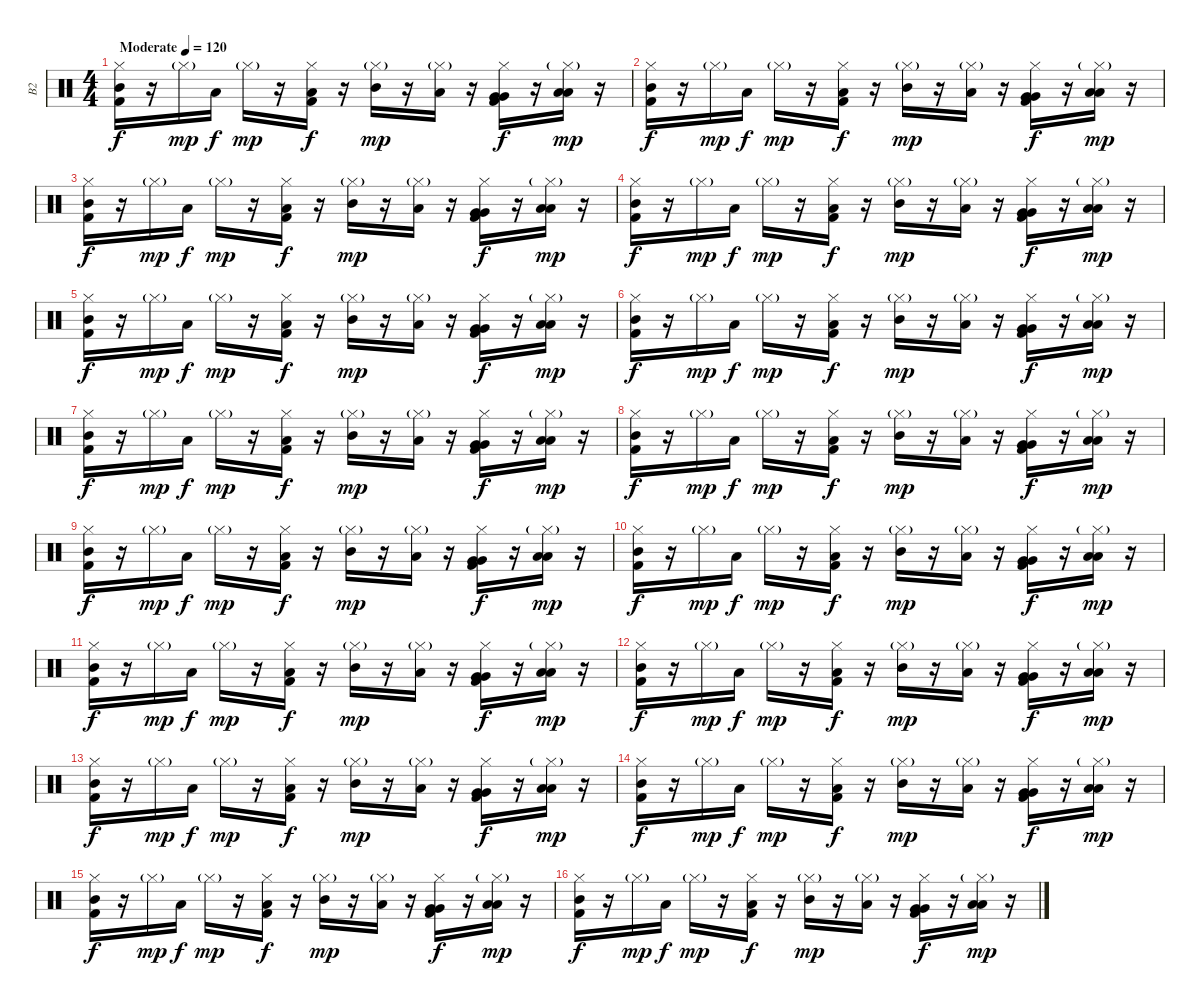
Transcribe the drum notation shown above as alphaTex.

\track ("В2" "В2") {instrument percussion}
\staff {score}
\articulation defaults
\ts (4 4)
\tempo (120 "Moderate")
\clef neutral
\ks c
("Hi-Hat (closed)" "Mid Tom (hit)" "Kick (hit) 2").16{dy f volume 1} r.16{volume 8} "Hi-Hat (closed)"{g}.16{dy mp} "Low Tom (hit)".16{dy f} "Hi-Hat (closed)"{g}.16{dy mp} r.16 ("Hi-Hat (closed)" "Low Floor Tom (hit)" "Kick (hit) 2").16{dy f} r.16 ("Hi-Hat (closed)"{g} "Mid Tom (hit)").16{dy mp} r.16 ("Hi-Hat (closed)"{g} "Low Tom (hit)").16 r.16 ("Hi-Hat (closed)" "Very Low Tom (hit)" "Very Low Tom (hit)" "Kick (hit) 2").16{dy f} r.16 ("Hi-Hat (closed)"{g} "Low Floor Tom (hit)" "Low Floor Tom (hit)").16{dy mp} r.16 |
("Hi-Hat (closed)" "Mid Tom (hit)" "Kick (hit) 2").16{dy f} r.16 "Hi-Hat (closed)"{g}.16{dy mp} "Low Tom (hit)".16{dy f} "Hi-Hat (closed)"{g}.16{dy mp} r.16 ("Hi-Hat (closed)" "Low Floor Tom (hit)" "Kick (hit) 2").16{dy f} r.16 ("Hi-Hat (closed)"{g} "Mid Tom (hit)").16{dy mp} r.16 ("Hi-Hat (closed)"{g} "Low Tom (hit)").16 r.16 ("Hi-Hat (closed)" "Very Low Tom (hit)" "Very Low Tom (hit)" "Kick (hit) 2").16{dy f} r.16 ("Hi-Hat (closed)"{g} "Low Floor Tom (hit)" "Low Floor Tom (hit)").16{dy mp} r.16 |
("Hi-Hat (closed)" "Mid Tom (hit)" "Kick (hit) 2").16{dy f} r.16 "Hi-Hat (closed)"{g}.16{dy mp} "Low Tom (hit)".16{dy f} "Hi-Hat (closed)"{g}.16{dy mp} r.16 ("Hi-Hat (closed)" "Low Floor Tom (hit)" "Kick (hit) 2").16{dy f} r.16 ("Hi-Hat (closed)"{g} "Mid Tom (hit)").16{dy mp} r.16 ("Hi-Hat (closed)"{g} "Low Tom (hit)").16 r.16 ("Hi-Hat (closed)" "Very Low Tom (hit)" "Very Low Tom (hit)" "Kick (hit) 2").16{dy f} r.16 ("Hi-Hat (closed)"{g} "Low Floor Tom (hit)" "Low Floor Tom (hit)").16{dy mp} r.16 |
("Hi-Hat (closed)" "Mid Tom (hit)" "Kick (hit) 2").16{dy f volume 11} r.16 "Hi-Hat (closed)"{g}.16{dy mp} "Low Tom (hit)".16{dy f} "Hi-Hat (closed)"{g}.16{dy mp} r.16 ("Hi-Hat (closed)" "Low Floor Tom (hit)" "Kick (hit) 2").16{dy f} r.16 ("Hi-Hat (closed)"{g} "Mid Tom (hit)").16{dy mp} r.16 ("Hi-Hat (closed)"{g} "Low Tom (hit)").16 r.16 ("Hi-Hat (closed)" "Very Low Tom (hit)" "Very Low Tom (hit)" "Kick (hit) 2").16{dy f} r.16 ("Hi-Hat (closed)"{g} "Low Floor Tom (hit)" "Low Floor Tom (hit)").16{dy mp} r.16 |
("Hi-Hat (closed)" "Mid Tom (hit)" "Kick (hit) 2").16{dy f} r.16 "Hi-Hat (closed)"{g}.16{dy mp} "Low Tom (hit)".16{dy f} "Hi-Hat (closed)"{g}.16{dy mp} r.16 ("Hi-Hat (closed)" "Low Floor Tom (hit)" "Kick (hit) 2").16{dy f} r.16 ("Hi-Hat (closed)"{g} "Mid Tom (hit)").16{dy mp} r.16 ("Hi-Hat (closed)"{g} "Low Tom (hit)").16 r.16 ("Hi-Hat (closed)" "Very Low Tom (hit)" "Very Low Tom (hit)" "Kick (hit) 2").16{dy f} r.16 ("Hi-Hat (closed)"{g} "Low Floor Tom (hit)" "Low Floor Tom (hit)").16{dy mp} r.16 |
("Hi-Hat (closed)" "Mid Tom (hit)" "Kick (hit) 2").16{dy f} r.16 "Hi-Hat (closed)"{g}.16{dy mp} "Low Tom (hit)".16{dy f} "Hi-Hat (closed)"{g}.16{dy mp} r.16 ("Hi-Hat (closed)" "Low Floor Tom (hit)" "Kick (hit) 2").16{dy f} r.16 ("Hi-Hat (closed)"{g} "Mid Tom (hit)").16{dy mp} r.16 ("Hi-Hat (closed)"{g} "Low Tom (hit)").16 r.16 ("Hi-Hat (closed)" "Very Low Tom (hit)" "Very Low Tom (hit)" "Kick (hit) 2").16{dy f} r.16 ("Hi-Hat (closed)"{g} "Low Floor Tom (hit)" "Low Floor Tom (hit)").16{dy mp} r.16 |
("Hi-Hat (closed)" "Mid Tom (hit)" "Kick (hit) 2").16{dy f} r.16 "Hi-Hat (closed)"{g}.16{dy mp} "Low Tom (hit)".16{dy f} "Hi-Hat (closed)"{g}.16{dy mp} r.16 ("Hi-Hat (closed)" "Low Floor Tom (hit)" "Kick (hit) 2").16{dy f} r.16 ("Hi-Hat (closed)"{g} "Mid Tom (hit)").16{dy mp} r.16 ("Hi-Hat (closed)"{g} "Low Tom (hit)").16 r.16 ("Hi-Hat (closed)" "Very Low Tom (hit)" "Very Low Tom (hit)" "Kick (hit) 2").16{dy f} r.16 ("Hi-Hat (closed)"{g} "Low Floor Tom (hit)" "Low Floor Tom (hit)").16{dy mp} r.16 |
("Hi-Hat (closed)" "Mid Tom (hit)" "Kick (hit) 2").16{dy f} r.16 "Hi-Hat (closed)"{g}.16{dy mp} "Low Tom (hit)".16{dy f} "Hi-Hat (closed)"{g}.16{dy mp} r.16 ("Hi-Hat (closed)" "Low Floor Tom (hit)" "Kick (hit) 2").16{dy f} r.16 ("Hi-Hat (closed)"{g} "Mid Tom (hit)").16{dy mp} r.16 ("Hi-Hat (closed)"{g} "Low Tom (hit)").16 r.16 ("Hi-Hat (closed)" "Very Low Tom (hit)" "Very Low Tom (hit)" "Kick (hit) 2").16{dy f} r.16 ("Hi-Hat (closed)"{g} "Low Floor Tom (hit)" "Low Floor Tom (hit)").16{dy mp} r.16 |
("Hi-Hat (closed)" "Mid Tom (hit)" "Kick (hit) 2").16{dy f} r.16 "Hi-Hat (closed)"{g}.16{dy mp} "Low Tom (hit)".16{dy f} "Hi-Hat (closed)"{g}.16{dy mp} r.16 ("Hi-Hat (closed)" "Low Floor Tom (hit)" "Kick (hit) 2").16{dy f} r.16 ("Hi-Hat (closed)"{g} "Mid Tom (hit)").16{dy mp} r.16 ("Hi-Hat (closed)"{g} "Low Tom (hit)").16 r.16 ("Hi-Hat (closed)" "Very Low Tom (hit)" "Very Low Tom (hit)" "Kick (hit) 2").16{dy f} r.16 ("Hi-Hat (closed)"{g} "Low Floor Tom (hit)" "Low Floor Tom (hit)").16{dy mp} r.16 |
("Hi-Hat (closed)" "Mid Tom (hit)" "Kick (hit) 2").16{dy f} r.16 "Hi-Hat (closed)"{g}.16{dy mp} "Low Tom (hit)".16{dy f} "Hi-Hat (closed)"{g}.16{dy mp} r.16 ("Hi-Hat (closed)" "Low Floor Tom (hit)" "Kick (hit) 2").16{dy f} r.16 ("Hi-Hat (closed)"{g} "Mid Tom (hit)").16{dy mp} r.16 ("Hi-Hat (closed)"{g} "Low Tom (hit)").16 r.16 ("Hi-Hat (closed)" "Very Low Tom (hit)" "Very Low Tom (hit)" "Kick (hit) 2").16{dy f} r.16 ("Hi-Hat (closed)"{g} "Low Floor Tom (hit)" "Low Floor Tom (hit)").16{dy mp} r.16 |
("Hi-Hat (closed)" "Mid Tom (hit)" "Kick (hit) 2").16{dy f} r.16 "Hi-Hat (closed)"{g}.16{dy mp} "Low Tom (hit)".16{dy f} "Hi-Hat (closed)"{g}.16{dy mp} r.16 ("Hi-Hat (closed)" "Low Floor Tom (hit)" "Kick (hit) 2").16{dy f} r.16 ("Hi-Hat (closed)"{g} "Mid Tom (hit)").16{dy mp} r.16 ("Hi-Hat (closed)"{g} "Low Tom (hit)").16 r.16 ("Hi-Hat (closed)" "Very Low Tom (hit)" "Very Low Tom (hit)" "Kick (hit) 2").16{dy f} r.16 ("Hi-Hat (closed)"{g} "Low Floor Tom (hit)" "Low Floor Tom (hit)").16{dy mp} r.16 |
("Hi-Hat (closed)" "Mid Tom (hit)" "Kick (hit) 2").16{dy f} r.16 "Hi-Hat (closed)"{g}.16{dy mp} "Low Tom (hit)".16{dy f} "Hi-Hat (closed)"{g}.16{dy mp} r.16 ("Hi-Hat (closed)" "Low Floor Tom (hit)" "Kick (hit) 2").16{dy f} r.16 ("Hi-Hat (closed)"{g} "Mid Tom (hit)").16{dy mp} r.16 ("Hi-Hat (closed)"{g} "Low Tom (hit)").16 r.16 ("Hi-Hat (closed)" "Very Low Tom (hit)" "Very Low Tom (hit)" "Kick (hit) 2").16{dy f} r.16 ("Hi-Hat (closed)"{g} "Low Floor Tom (hit)" "Low Floor Tom (hit)").16{dy mp} r.16 |
("Hi-Hat (closed)" "Mid Tom (hit)" "Kick (hit) 2").16{dy f} r.16 "Hi-Hat (closed)"{g}.16{dy mp} "Low Tom (hit)".16{dy f} "Hi-Hat (closed)"{g}.16{dy mp} r.16 ("Hi-Hat (closed)" "Low Floor Tom (hit)" "Kick (hit) 2").16{dy f} r.16 ("Hi-Hat (closed)"{g} "Mid Tom (hit)").16{dy mp} r.16 ("Hi-Hat (closed)"{g} "Low Tom (hit)").16 r.16 ("Hi-Hat (closed)" "Very Low Tom (hit)" "Very Low Tom (hit)" "Kick (hit) 2").16{dy f} r.16 ("Hi-Hat (closed)"{g} "Low Floor Tom (hit)" "Low Floor Tom (hit)").16{dy mp} r.16 |
("Hi-Hat (closed)" "Mid Tom (hit)" "Kick (hit) 2").16{dy f} r.16 "Hi-Hat (closed)"{g}.16{dy mp} "Low Tom (hit)".16{dy f} "Hi-Hat (closed)"{g}.16{dy mp} r.16 ("Hi-Hat (closed)" "Low Floor Tom (hit)" "Kick (hit) 2").16{dy f} r.16 ("Hi-Hat (closed)"{g} "Mid Tom (hit)").16{dy mp} r.16 ("Hi-Hat (closed)"{g} "Low Tom (hit)").16 r.16 ("Hi-Hat (closed)" "Very Low Tom (hit)" "Very Low Tom (hit)" "Kick (hit) 2").16{dy f} r.16 ("Hi-Hat (closed)"{g} "Low Floor Tom (hit)" "Low Floor Tom (hit)").16{dy mp} r.16 |
("Hi-Hat (closed)" "Mid Tom (hit)" "Kick (hit) 2").16{dy f} r.16 "Hi-Hat (closed)"{g}.16{dy mp} "Low Tom (hit)".16{dy f} "Hi-Hat (closed)"{g}.16{dy mp} r.16 ("Hi-Hat (closed)" "Low Floor Tom (hit)" "Kick (hit) 2").16{dy f} r.16 ("Hi-Hat (closed)"{g} "Mid Tom (hit)").16{dy mp} r.16 ("Hi-Hat (closed)"{g} "Low Tom (hit)").16 r.16 ("Hi-Hat (closed)" "Very Low Tom (hit)" "Very Low Tom (hit)" "Kick (hit) 2").16{dy f} r.16 ("Hi-Hat (closed)"{g} "Low Floor Tom (hit)" "Low Floor Tom (hit)").16{dy mp} r.16 |
("Hi-Hat (closed)" "Mid Tom (hit)" "Kick (hit) 2").16{dy f} r.16 "Hi-Hat (closed)"{g}.16{dy mp} "Low Tom (hit)".16{dy f} "Hi-Hat (closed)"{g}.16{dy mp} r.16 ("Hi-Hat (closed)" "Low Floor Tom (hit)" "Kick (hit) 2").16{dy f} r.16 ("Hi-Hat (closed)"{g} "Mid Tom (hit)").16{dy mp} r.16 ("Hi-Hat (closed)"{g} "Low Tom (hit)").16 r.16 ("Hi-Hat (closed)" "Very Low Tom (hit)" "Very Low Tom (hit)" "Kick (hit) 2").16{dy f} r.16 ("Hi-Hat (closed)"{g} "Low Floor Tom (hit)" "Low Floor Tom (hit)").16{dy mp} r.16
